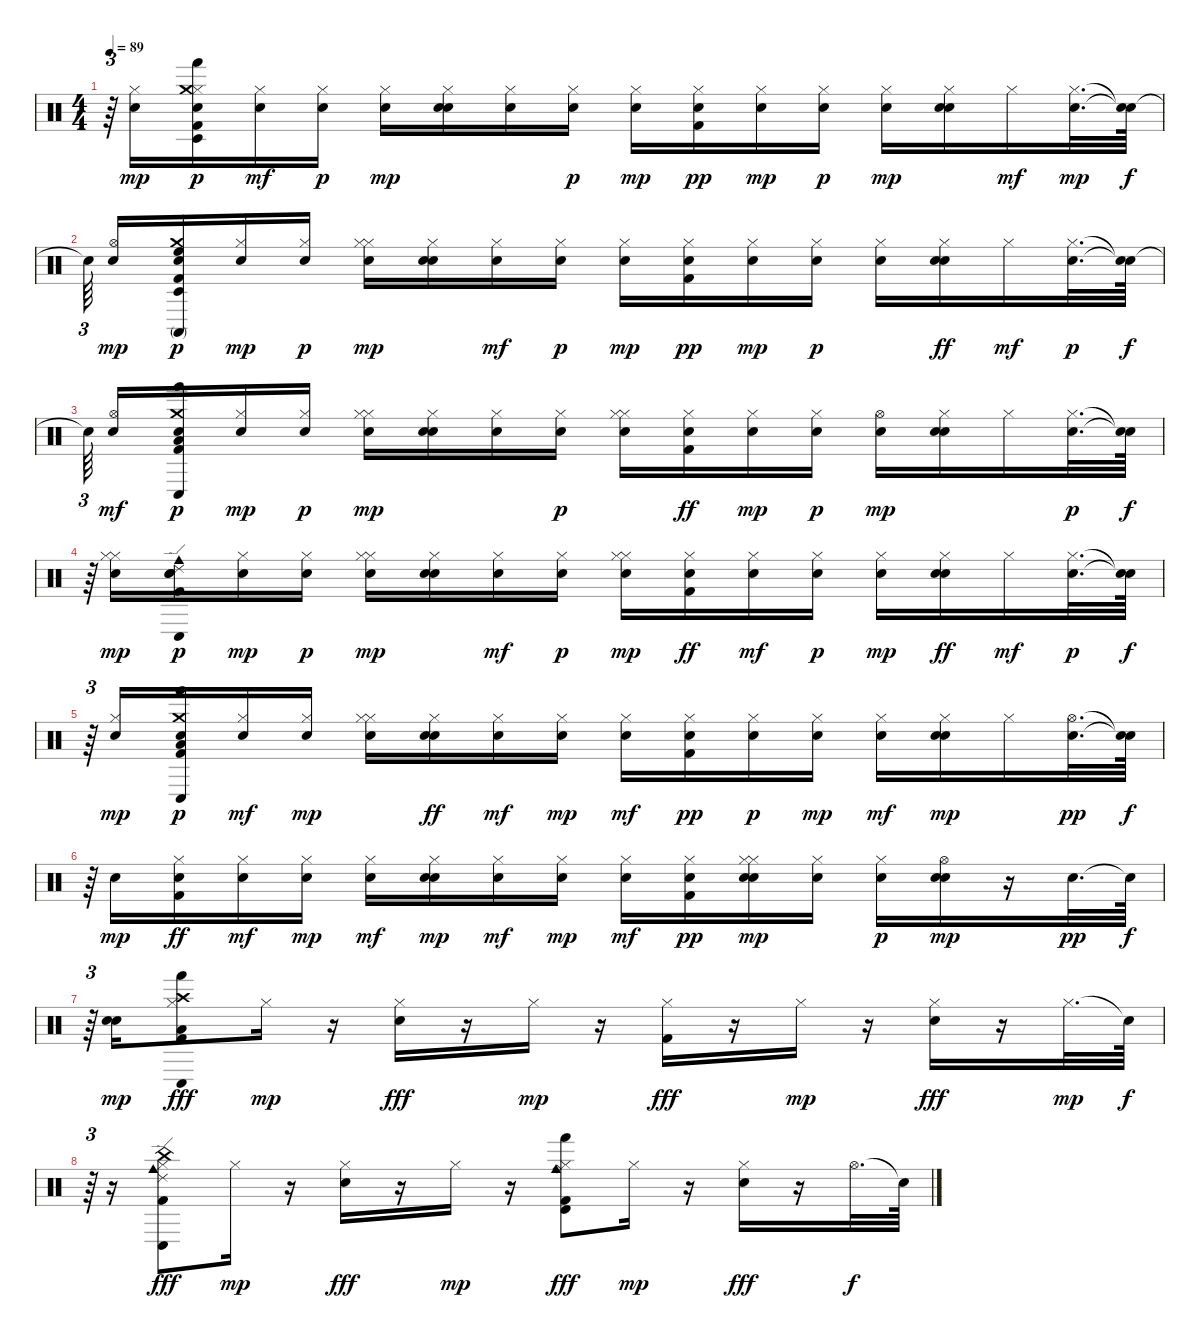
\track "" {instrument percussion}
\staff {score}
\articulation defaults
\ts (4 4)
\tempo 89
\clef neutral
\ks c
r.64{tu (3 2) dy f} ("Electric Snare (hit)" "Hi-Hat (closed)").16{dy mp} ("Hi-Hat (closed)" "Crash medium (hit)" "Hand (hit)" "Timbale low (hit)" "Kick (hit) 2" "Electric Snare (hit)").16{dy p} ("Electric Snare (hit)" "Hi-Hat (closed)").16{dy mf} ("Electric Snare (hit)" "Hi-Hat (closed)").16{dy p} ("Electric Snare (hit)" "Hi-Hat (closed)").16{dy mp} ("Snare (hit) 2" "Electric Snare (hit)" "Hi-Hat (closed)").16 ("Electric Snare (hit)" "Hi-Hat (closed)").16 ("Electric Snare (hit)" "Hi-Hat (closed)").16{dy p} ("Electric Snare (hit)" "Hi-Hat (closed)").16{dy mp} ("Kick (hit) 2" "Electric Snare (hit)" "Hi-Hat (closed)").16{dy pp} ("Electric Snare (hit)" "Hi-Hat (closed)").16{dy mp} ("Electric Snare (hit)" "Hi-Hat (closed)").16{dy p} ("Electric Snare (hit)" "Hi-Hat (closed)").16{dy mp} ("Snare (hit) 2" "Electric Snare (hit)" "Hi-Hat (closed)").16 "Hi-Hat (closed)".16{dy mf} ("Electric Snare (hit)" "Hi-Hat (closed)").32{d dy mp} ("Snare (hit)"{t} "Snare (hit)"{t}).64{dy f} |
"Snare (hit)"{t}.64{tu (3 2) beam splitsecondary} ("Electric Snare (hit)" "Hi-Hat (open)").16{dy mp} ("High Floor Tom (hit)" "Crash medium (hit)" "Conga high (mute)" "Timbale low (hit)" "Kick (hit) 2" "Electric Snare (hit)").16{dy p} ("Electric Snare (hit)" "Hi-Hat (closed)").16{dy mp} ("Electric Snare (hit)" "Hi-Hat (closed)").16{dy p} ("Electric Snare (hit)" "Hi-Hat (closed)" "Hi-Hat (closed)").16{dy mp} ("Snare (hit) 2" "Electric Snare (hit)" "Hi-Hat (closed)").16 ("Electric Snare (hit)" "Hi-Hat (closed)").16{dy mf} ("Electric Snare (hit)" "Hi-Hat (closed)").16{dy p} ("Electric Snare (hit)" "Hi-Hat (closed)").16{dy mp} ("Kick (hit) 2" "Electric Snare (hit)" "Hi-Hat (closed)").16{dy pp} ("Electric Snare (hit)" "Hi-Hat (closed)").16{dy mp} ("Electric Snare (hit)" "Hi-Hat (closed)").16{dy p} ("Electric Snare (hit)" "Hi-Hat (closed)").16 ("Snare (hit) 2" "Electric Snare (hit)" "Hi-Hat (closed)").16{dy ff} "Hi-Hat (closed)".16{dy mf} ("Electric Snare (hit)" "Hi-Hat (closed)").32{d dy p} ("Snare (hit)"{t} "Snare (hit)"{t}).64{dy f} |
"Snare (hit)"{t}.64{tu (3 2) beam splitsecondary} ("Electric Snare (hit)" "Hi-Hat (open)").16{dy mf} ("Low Tom (hit)" "Crash medium (hit)" "Hand (hit)" "Conga low (hit)" "Kick (hit) 2" "Electric Snare (hit)").16{dy p} ("Electric Snare (hit)" "Hi-Hat (closed)").16{dy mp} ("Electric Snare (hit)" "Hi-Hat (closed)").16{dy p} ("Electric Snare (hit)" "Hi-Hat (closed)" "Hi-Hat (closed)").16{dy mp} ("Snare (hit) 2" "Electric Snare (hit)" "Hi-Hat (closed)").16 ("Electric Snare (hit)" "Hi-Hat (closed)").16 ("Electric Snare (hit)" "Hi-Hat (closed)").16{dy p} ("Electric Snare (hit)" "Hi-Hat (closed)" "Hi-Hat (closed)").16 ("Kick (hit) 2" "Electric Snare (hit)" "Hi-Hat (closed)").16{dy ff} ("Electric Snare (hit)" "Hi-Hat (closed)").16{dy mp} ("Electric Snare (hit)" "Hi-Hat (closed)").16{dy p} ("Electric Snare (hit)" "Hi-Hat (open)").16{dy mp} ("Snare (hit) 2" "Electric Snare (hit)" "Hi-Hat (closed)").16 "Hi-Hat (closed)".16 ("Electric Snare (hit)" "Hi-Hat (closed)").32{d dy p} ("Snare (hit)"{t} "Snare (hit)"{t}).64{dy f} |
r.64{tu (3 2)} ("Electric Snare (hit)" "Hi-Hat (closed)" "Hi-Hat (closed)").16{dy mp} ("Electric Snare (hit)" "Cowbell medium (hit)" "Ride (edge) 2" "Conga low (hit)" "Kick (hit) 2" "Electric Snare (hit)").16{dy p} ("Electric Snare (hit)" "Hi-Hat (closed)").16{dy mp} ("Electric Snare (hit)" "Hi-Hat (closed)").16{dy p} ("Electric Snare (hit)" "Hi-Hat (closed)" "Hi-Hat (closed)").16{dy mp} ("Snare (hit) 2" "Electric Snare (hit)" "Hi-Hat (closed)").16 ("Electric Snare (hit)" "Hi-Hat (closed)").16{dy mf} ("Electric Snare (hit)" "Hi-Hat (closed)").16{dy p} ("Electric Snare (hit)" "Hi-Hat (closed)" "Hi-Hat (closed)").16{dy mp} ("Kick (hit) 2" "Electric Snare (hit)" "Hi-Hat (closed)").16{dy ff} ("Electric Snare (hit)" "Hi-Hat (closed)").16{dy mf} ("Electric Snare (hit)" "Hi-Hat (closed)").16{dy p} ("Electric Snare (hit)" "Hi-Hat (closed)").16{dy mp} ("Snare (hit) 2" "Electric Snare (hit)" "Hi-Hat (closed)").16{dy ff} "Hi-Hat (closed)".16{dy mf} ("Electric Snare (hit)" "Hi-Hat (closed)").32{d dy p} ("Snare (hit)"{t} "Snare (hit)"{t}).64{dy f} |
r.64{tu (3 2)} ("Electric Snare (hit)" "Hi-Hat (closed)").16{dy mp} ("Low Tom (hit)" "Crash medium (hit)" "Hand (hit)" "Conga low (hit)" "Kick (hit) 2" "Electric Snare (hit)").16{dy p} ("Electric Snare (hit)" "Hi-Hat (closed)").16{dy mf} ("Electric Snare (hit)" "Hi-Hat (closed)").16{dy mp} ("Electric Snare (hit)" "Hi-Hat (closed)" "Hi-Hat (closed)").16 ("Snare (hit) 2" "Electric Snare (hit)" "Hi-Hat (closed)").16{dy ff} ("Electric Snare (hit)" "Hi-Hat (closed)").16{dy mf} ("Electric Snare (hit)" "Hi-Hat (closed)").16{dy mp} ("Electric Snare (hit)" "Hi-Hat (closed)").16{dy mf} ("Kick (hit) 2" "Electric Snare (hit)" "Hi-Hat (closed)").16{dy pp} ("Electric Snare (hit)" "Hi-Hat (closed)").16{dy p} ("Electric Snare (hit)" "Hi-Hat (closed)").16{dy mp} ("Electric Snare (hit)" "Hi-Hat (closed)").16{dy mf} ("Snare (hit) 2" "Electric Snare (hit)" "Hi-Hat (closed)").16{dy mp} "Hi-Hat (closed)".16 ("Electric Snare (hit)" "Hi-Hat (open)").32{d dy pp} ("Snare (hit)"{t} "Snare (hit)"{t}).64{dy f} |
r.64{tu (3 2)} "Electric Snare (hit)".16{dy mp} ("Kick (hit) 2" "Electric Snare (hit)" "Hi-Hat (closed)").16{dy ff} ("Electric Snare (hit)" "Hi-Hat (closed)").16{dy mf} ("Electric Snare (hit)" "Hi-Hat (closed)").16{dy mp} ("Electric Snare (hit)" "Hi-Hat (closed)").16{dy mf} ("Snare (hit) 2" "Electric Snare (hit)" "Hi-Hat (closed)").16{dy mp} ("Electric Snare (hit)" "Hi-Hat (closed)").16{dy mf} ("Electric Snare (hit)" "Hi-Hat (closed)").16{dy mp} ("Electric Snare (hit)" "Hi-Hat (closed)").16{dy mf} ("Kick (hit) 2" "Electric Snare (hit)" "Hi-Hat (closed)").16{dy pp} ("Snare (hit) 2" "Electric Snare (hit)" "Hi-Hat (closed)" "Hi-Hat (closed)").16{dy mp} ("Electric Snare (hit)" "Hi-Hat (closed)").16 ("Electric Snare (hit)" "Hi-Hat (closed)").16{dy p} ("Snare (hit) 2" "Electric Snare (hit)" "Hi-Hat (open)").16{dy mp} r.16 "Electric Snare (hit)".32{d dy pp} "Snare (hit)"{t}.64{dy f} |
r.64{tu (3 2)} ("Snare (hit) 2" "Electric Snare (hit)").16{dy mp} ("Low Tom (hit)" "Hand (hit)" "Conga low (hit)" "Kick (hit) 2" "Hi-Hat (closed)" "Crash high (hit)").8{dy fff} "Hi-Hat (closed)".16{dy mp} r.16 ("Snare (hit) 2" "Hi-Hat (closed)").16{dy fff} r.16 "Hi-Hat (closed)".16{dy mp} r.16 ("Kick (hit) 2" "Hi-Hat (closed)").16{dy fff} r.16 "Hi-Hat (closed)".16{dy mp} r.16 ("Snare (hit) 2" "Hi-Hat (closed)").16{dy fff} r.16 "Hi-Hat (closed)".32{d dy mp} "Snare (hit)"{t}.64{dy f} |
r.64{tu (3 2)} r.16 ("China (hit)" "Cowbell medium (hit)" "Ride (edge) 2" "Conga low (hit)" "Kick (hit) 2" "Hi-Hat (closed)").8{dy fff} "Hi-Hat (closed)".16{dy mp} r.16 ("Snare (hit) 2" "Hi-Hat (closed)").16{dy fff} r.16 "Hi-Hat (closed)".16{dy mp} r.16 ("Ride (bell)" "Cowbell medium (hit)" "Hand (hit)" "Timbale high (hit)" "Kick (hit) 2" "Hi-Hat (closed)").8{dy fff} "Hi-Hat (closed)".16{dy mp} r.16 ("Snare (hit) 2" "Hi-Hat (closed)").16{dy fff} r.16 "Hi-Hat (open)".32{d dy f} "Snare (hit)"{t}.64
